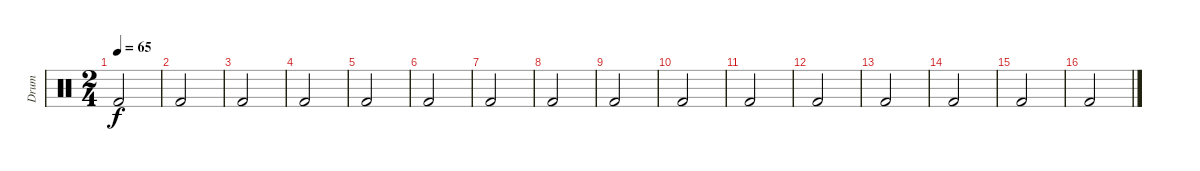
\track ("Drum" "Drum") {instrument percussion}
\staff {score}
\articulation defaults
\ts (2 4)
\tempo 65
\clef neutral
\ks c "Kick (hit) 2".2{dy f}
|
"Kick (hit) 2".2 |
"Kick (hit) 2".2 |
"Kick (hit) 2".2 |
"Kick (hit) 2".2 |
"Kick (hit) 2".2 |
"Kick (hit) 2".2 |
"Kick (hit) 2".2 |
"Kick (hit) 2".2 |
"Kick (hit) 2".2 |
"Kick (hit) 2".2 |
"Kick (hit) 2".2 |
"Kick (hit) 2".2 |
"Kick (hit) 2".2 |
"Kick (hit) 2".2 |
"Kick (hit) 2".2
